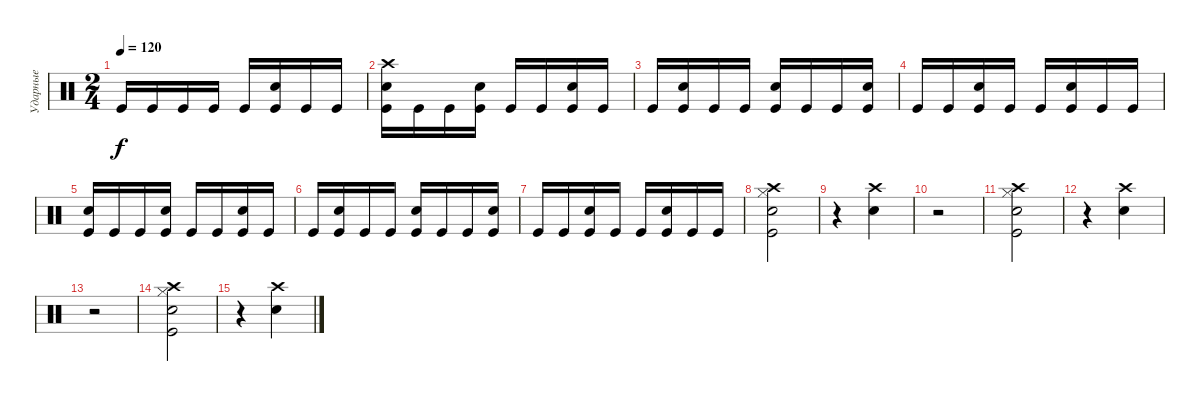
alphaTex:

\track ("Ударные" "Ударные") {instrument percussion}
\staff {score}
\articulation defaults
\ts (2 4)
\tempo 120
\clef neutral
\ks c "Kick (hit)".16{dy f} "Kick (hit)".16 "Kick (hit)".16 "Kick (hit)".16 "Kick (hit)".16
("Electric Snare (hit)" "Kick (hit)").16 "Kick (hit)".16 "Kick (hit)".16 |
("Crash high (hit)" "Electric Snare (hit)" "Kick (hit)").16 "Kick (hit)".16 "Kick (hit)".16 ("Electric Snare (hit)" "Kick (hit)").16 "Kick (hit)".16 "Kick (hit)".16 ("Electric Snare (hit)" "Kick (hit)").16 "Kick (hit)".16 |
"Kick (hit)".16 ("Electric Snare (hit)" "Kick (hit)").16 "Kick (hit)".16 "Kick (hit)".16 ("Electric Snare (hit)" "Kick (hit)").16 "Kick (hit)".16 "Kick (hit)".16 ("Electric Snare (hit)" "Kick (hit)").16 |
"Kick (hit)".16 "Kick (hit)".16 ("Electric Snare (hit)" "Kick (hit)").16 "Kick (hit)".16 "Kick (hit)".16 ("Electric Snare (hit)" "Kick (hit)").16 "Kick (hit)".16 "Kick (hit)".16 |
("Electric Snare (hit)" "Kick (hit)").16 "Kick (hit)".16 "Kick (hit)".16 ("Electric Snare (hit)" "Kick (hit)").16 "Kick (hit)".16 "Kick (hit)".16 ("Electric Snare (hit)" "Kick (hit)").16 "Kick (hit)".16 |
"Kick (hit)".16 ("Electric Snare (hit)" "Kick (hit)").16 "Kick (hit)".16 "Kick (hit)".16 ("Electric Snare (hit)" "Kick (hit)").16 "Kick (hit)".16 "Kick (hit)".16 ("Electric Snare (hit)" "Kick (hit)").16 |
"Kick (hit)".16 "Kick (hit)".16 ("Electric Snare (hit)" "Kick (hit)").16 "Kick (hit)".16 "Kick (hit)".16 ("Electric Snare (hit)" "Kick (hit)").16 "Kick (hit)".16 "Kick (hit)".16 |
("Crash high (hit)" "Hi-Hat (closed)" "Electric Snare (hit)" "Kick (hit)").2 |
r.4 ("Electric Snare (hit)" "Crash high (hit)").4 |
r.2 |
("Crash high (hit)" "Hi-Hat (closed)" "Electric Snare (hit)" "Kick (hit)").2 |
r.4 ("Electric Snare (hit)" "Crash high (hit)").4 |
r.2 |
("Crash high (hit)" "Hi-Hat (closed)" "Electric Snare (hit)" "Kick (hit)").2 |
r.4 ("Electric Snare (hit)" "Crash high (hit)").4
